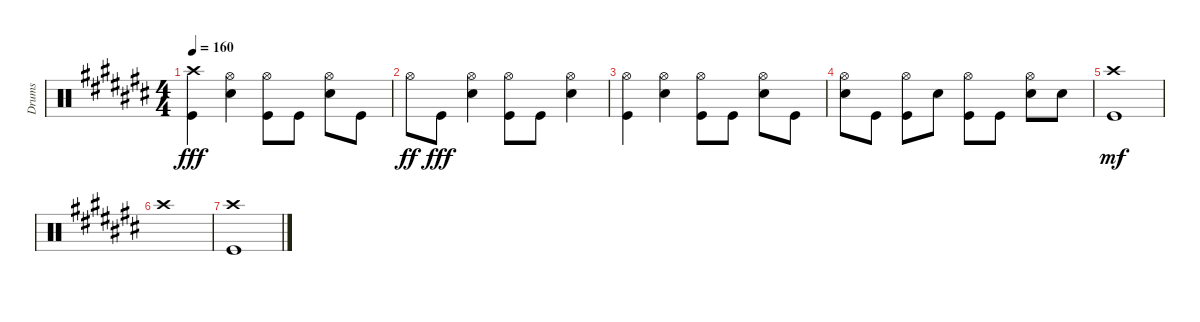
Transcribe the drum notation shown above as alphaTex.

\track ("Drums" "Drums") {instrument percussion}
\staff {score}
\articulation defaults
\ts (4 4)
\tempo 160
\clef neutral
\ks c#
("Crash high (hit)" "Kick (hit)").4{dy fff} ("Hi-Hat (open)" "Snare (hit) 2").4 ("Hi-Hat (open)" "Kick (hit)").8 "Kick (hit)".8 ("Hi-Hat (open)" "Snare (hit) 2").8 "Kick (hit)".8 |
"Hi-Hat (open)".8{dy ff} "Kick (hit)".8{dy fff} ("Hi-Hat (open)" "Snare (hit) 2").4 ("Hi-Hat (open)" "Kick (hit)").8 "Kick (hit)".8 ("Hi-Hat (open)" "Snare (hit) 2").4 |
("Hi-Hat (open)" "Kick (hit)").4 ("Hi-Hat (open)" "Snare (hit) 2").4 ("Hi-Hat (open)" "Kick (hit)").8 "Kick (hit)".8 ("Hi-Hat (open)" "Snare (hit) 2").8 "Kick (hit)".8 |
("Hi-Hat (open)" "Snare (hit) 2").8 "Kick (hit)".8 ("Hi-Hat (open)" "Kick (hit)").8 "Snare (hit) 2".8 ("Hi-Hat (open)" "Kick (hit)").8 "Kick (hit)".8 ("Hi-Hat (open)" "Snare (hit) 2").8 "Snare (hit) 2".8 |
("Crash high (hit)" "Kick (hit)").1{dy mf} |
"Crash high (hit)".1 |
("Crash high (hit)" "Kick (hit)").1
